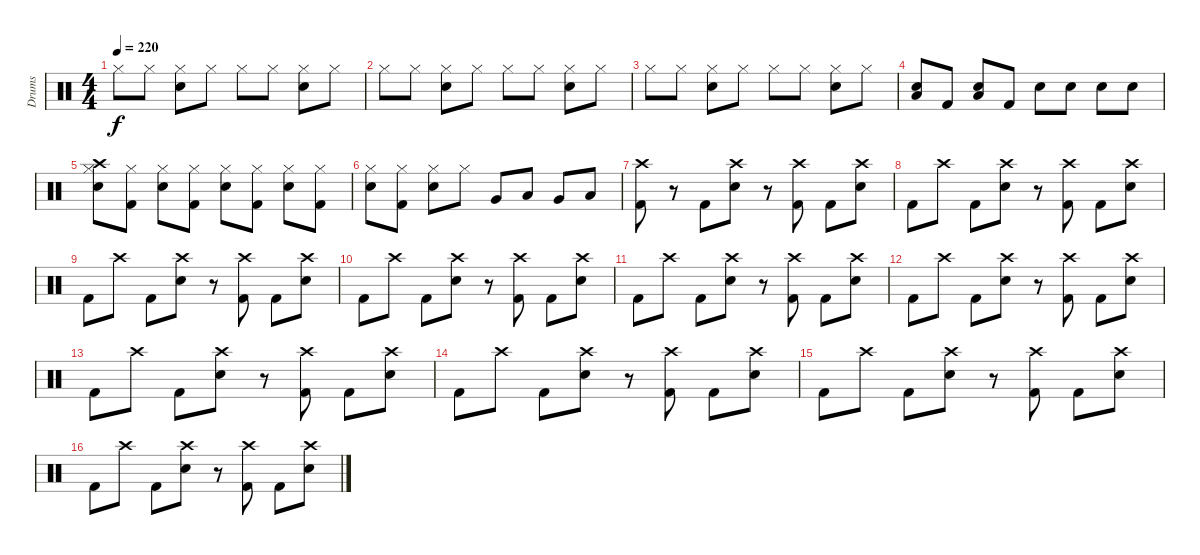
\track ("Drums" "Drums") {instrument percussion}
\staff {score}
\articulation defaults
\ts (4 4)
\tempo 220
\clef neutral
\ks c "Hi-Hat (closed)".8{dy f} "Hi-Hat (closed)".8
("Hi-Hat (closed)" "Snare (hit) 2").8 "Hi-Hat (closed)".8 "Hi-Hat (closed)".8 "Hi-Hat (closed)".8 ("Hi-Hat (closed)" "Snare (hit) 2").8 "Hi-Hat (closed)".8 |
"Hi-Hat (closed)".8 "Hi-Hat (closed)".8 ("Hi-Hat (closed)" "Snare (hit) 2").8 "Hi-Hat (closed)".8 "Hi-Hat (closed)".8 "Hi-Hat (closed)".8 ("Hi-Hat (closed)" "Snare (hit) 2").8 "Hi-Hat (closed)".8 |
"Hi-Hat (closed)".8 "Hi-Hat (closed)".8 ("Hi-Hat (closed)" "Snare (hit) 2").8 "Hi-Hat (closed)".8 "Hi-Hat (closed)".8 "Hi-Hat (closed)".8 ("Hi-Hat (closed)" "Snare (hit) 2").8 "Hi-Hat (closed)".8 |
("Low Floor Tom (hit)" "Snare (hit) 2").8 "Kick (hit) 2".8 ("Low Floor Tom (hit)" "Snare (hit) 2").8 "Kick (hit) 2".8 "Snare (hit) 2".8 "Snare (hit) 2".8 "Snare (hit) 2".8 "Snare (hit) 2".8 |
("Crash high (hit)" "Hi-Hat (closed)" "Snare (hit) 2").8 ("Hi-Hat (closed)" "Kick (hit) 2").8 ("Hi-Hat (closed)" "Snare (hit) 2").8 ("Hi-Hat (closed)" "Kick (hit) 2").8 ("Hi-Hat (closed)" "Snare (hit) 2").8 ("Hi-Hat (closed)" "Kick (hit) 2").8 ("Hi-Hat (closed)" "Snare (hit) 2").8 ("Hi-Hat (closed)" "Kick (hit) 2").8 |
("Hi-Hat (closed)" "Snare (hit) 2").8 ("Hi-Hat (closed)" "Kick (hit) 2").8 ("Hi-Hat (closed)" "Snare (hit) 2").8 "Hi-Hat (closed)".8 "Very Low Tom (hit)".8 "Low Floor Tom (hit)".8 "Very Low Tom (hit)".8 "Low Floor Tom (hit)".8 |
("Crash high (hit)" "Kick (hit) 2").8 r.8 "Kick (hit) 2".8 ("Crash high (hit)" "Snare (hit) 2").8 r.8 ("Crash high (hit)" "Kick (hit) 2").8 "Kick (hit) 2".8 ("Crash high (hit)" "Snare (hit) 2").8 |
"Kick (hit) 2".8 "Crash high (hit)".8 "Kick (hit) 2".8 ("Crash high (hit)" "Snare (hit) 2").8 r.8 ("Crash high (hit)" "Kick (hit) 2").8 "Kick (hit) 2".8 ("Crash high (hit)" "Snare (hit) 2").8 |
"Kick (hit) 2".8 "Crash high (hit)".8 "Kick (hit) 2".8 ("Crash high (hit)" "Snare (hit) 2").8 r.8 ("Crash high (hit)" "Kick (hit) 2").8 "Kick (hit) 2".8 ("Crash high (hit)" "Snare (hit) 2").8 |
"Kick (hit) 2".8 "Crash high (hit)".8 "Kick (hit) 2".8 ("Crash high (hit)" "Snare (hit) 2").8 r.8 ("Crash high (hit)" "Kick (hit) 2").8 "Kick (hit) 2".8 ("Crash high (hit)" "Snare (hit) 2").8 |
"Kick (hit) 2".8 "Crash high (hit)".8 "Kick (hit) 2".8 ("Crash high (hit)" "Snare (hit) 2").8 r.8 ("Crash high (hit)" "Kick (hit) 2").8 "Kick (hit) 2".8 ("Crash high (hit)" "Snare (hit) 2").8 |
"Kick (hit) 2".8 "Crash high (hit)".8 "Kick (hit) 2".8 ("Crash high (hit)" "Snare (hit) 2").8 r.8 ("Crash high (hit)" "Kick (hit) 2").8 "Kick (hit) 2".8 ("Crash high (hit)" "Snare (hit) 2").8 |
"Kick (hit) 2".8 "Crash high (hit)".8 "Kick (hit) 2".8 ("Crash high (hit)" "Snare (hit) 2").8 r.8 ("Crash high (hit)" "Kick (hit) 2").8 "Kick (hit) 2".8 ("Crash high (hit)" "Snare (hit) 2").8 |
"Kick (hit) 2".8 "Crash high (hit)".8 "Kick (hit) 2".8 ("Crash high (hit)" "Snare (hit) 2").8 r.8 ("Crash high (hit)" "Kick (hit) 2").8 "Kick (hit) 2".8 ("Crash high (hit)" "Snare (hit) 2").8 |
"Kick (hit) 2".8 "Crash high (hit)".8 "Kick (hit) 2".8 ("Crash high (hit)" "Snare (hit) 2").8 r.8 ("Crash high (hit)" "Kick (hit) 2").8 "Kick (hit) 2".8 ("Crash high (hit)" "Snare (hit) 2").8 |
"Kick (hit) 2".8 "Crash high (hit)".8 "Kick (hit) 2".8 ("Crash high (hit)" "Snare (hit) 2").8 r.8 ("Crash high (hit)" "Kick (hit) 2").8 "Kick (hit) 2".8 ("Crash high (hit)" "Snare (hit) 2").8
